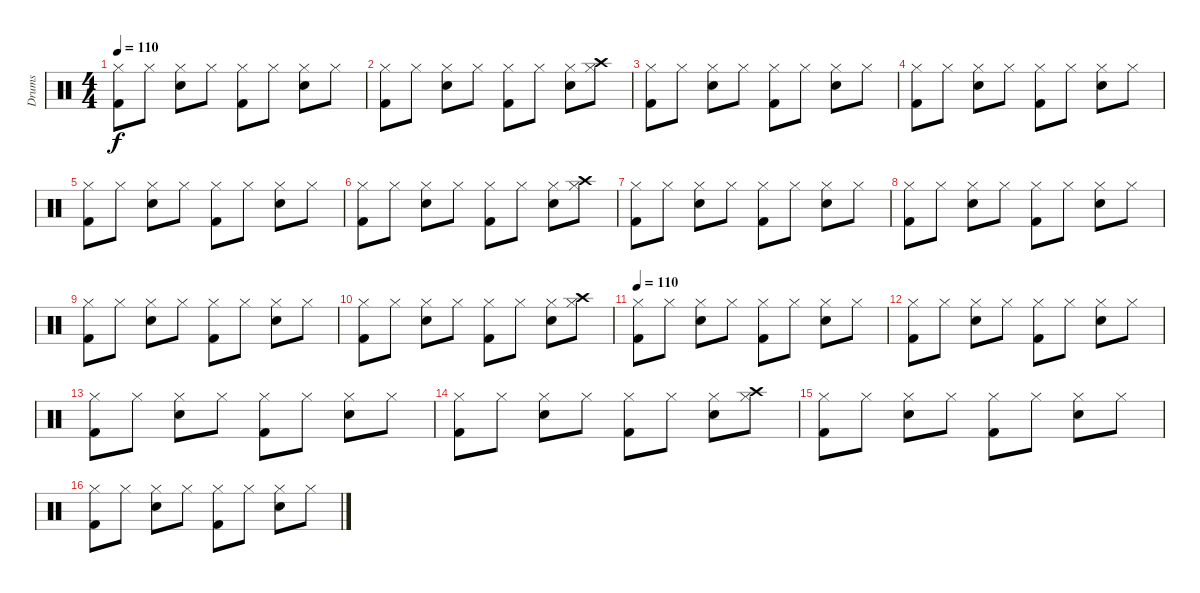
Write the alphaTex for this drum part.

\track ("Drums" "Drums") {instrument percussion}
\staff {score}
\articulation defaults
\ts (4 4)
\tempo 110
\clef neutral
\ks c
("Hi-Hat (closed)" "Kick (hit) 2").8{dy f} "Hi-Hat (closed)".8 ("Hi-Hat (closed)" "Snare (hit) 2").8 "Hi-Hat (closed)".8 ("Hi-Hat (closed)" "Kick (hit) 2").8 "Hi-Hat (closed)".8 ("Hi-Hat (closed)" "Snare (hit) 2").8 "Hi-Hat (closed)".8 |
("Hi-Hat (closed)" "Kick (hit) 2").8 "Hi-Hat (closed)".8 ("Hi-Hat (closed)" "Snare (hit) 2").8 "Hi-Hat (closed)".8 ("Hi-Hat (closed)" "Kick (hit) 2").8 "Hi-Hat (closed)".8 ("Hi-Hat (closed)" "Snare (hit) 2").8 ("Hi-Hat (closed)" "Crash high (hit)").8 |
("Hi-Hat (closed)" "Kick (hit) 2").8 "Hi-Hat (closed)".8 ("Hi-Hat (closed)" "Snare (hit) 2").8 "Hi-Hat (closed)".8 ("Hi-Hat (closed)" "Kick (hit) 2").8 "Hi-Hat (closed)".8 ("Hi-Hat (closed)" "Snare (hit) 2").8 "Hi-Hat (closed)".8 |
("Hi-Hat (closed)" "Kick (hit) 2").8 "Hi-Hat (closed)".8 ("Hi-Hat (closed)" "Snare (hit) 2").8 "Hi-Hat (closed)".8 ("Hi-Hat (closed)" "Kick (hit) 2").8 "Hi-Hat (closed)".8 ("Hi-Hat (closed)" "Snare (hit) 2").8 "Hi-Hat (closed)".8 |
("Hi-Hat (closed)" "Kick (hit) 2").8 "Hi-Hat (closed)".8 ("Hi-Hat (closed)" "Snare (hit) 2").8 "Hi-Hat (closed)".8 ("Hi-Hat (closed)" "Kick (hit) 2").8 "Hi-Hat (closed)".8 ("Hi-Hat (closed)" "Snare (hit) 2").8 "Hi-Hat (closed)".8 |
("Hi-Hat (closed)" "Kick (hit) 2").8 "Hi-Hat (closed)".8 ("Hi-Hat (closed)" "Snare (hit) 2").8 "Hi-Hat (closed)".8 ("Hi-Hat (closed)" "Kick (hit) 2").8 "Hi-Hat (closed)".8 ("Hi-Hat (closed)" "Snare (hit) 2").8 ("Hi-Hat (closed)" "Crash high (hit)").8 |
("Hi-Hat (closed)" "Kick (hit) 2").8 "Hi-Hat (closed)".8 ("Hi-Hat (closed)" "Snare (hit) 2").8 "Hi-Hat (closed)".8 ("Hi-Hat (closed)" "Kick (hit) 2").8 "Hi-Hat (closed)".8 ("Hi-Hat (closed)" "Snare (hit) 2").8 "Hi-Hat (closed)".8 |
("Hi-Hat (closed)" "Kick (hit) 2").8 "Hi-Hat (closed)".8 ("Hi-Hat (closed)" "Snare (hit) 2").8 "Hi-Hat (closed)".8 ("Hi-Hat (closed)" "Kick (hit) 2").8 "Hi-Hat (closed)".8 ("Hi-Hat (closed)" "Snare (hit) 2").8 "Hi-Hat (closed)".8 |
("Hi-Hat (closed)" "Kick (hit) 2").8 "Hi-Hat (closed)".8 ("Hi-Hat (closed)" "Snare (hit) 2").8 "Hi-Hat (closed)".8 ("Hi-Hat (closed)" "Kick (hit) 2").8 "Hi-Hat (closed)".8 ("Hi-Hat (closed)" "Snare (hit) 2").8 "Hi-Hat (closed)".8 |
("Hi-Hat (closed)" "Kick (hit) 2").8 "Hi-Hat (closed)".8 ("Hi-Hat (closed)" "Snare (hit) 2").8 "Hi-Hat (closed)".8 ("Hi-Hat (closed)" "Kick (hit) 2").8 "Hi-Hat (closed)".8 ("Hi-Hat (closed)" "Snare (hit) 2").8 ("Hi-Hat (closed)" "Crash high (hit)").8 |
\tempo 110
("Hi-Hat (closed)" "Kick (hit) 2").8 "Hi-Hat (closed)".8 ("Hi-Hat (closed)" "Snare (hit) 2").8 "Hi-Hat (closed)".8 ("Hi-Hat (closed)" "Kick (hit) 2").8 "Hi-Hat (closed)".8 ("Hi-Hat (closed)" "Snare (hit) 2").8 "Hi-Hat (closed)".8 |
("Hi-Hat (closed)" "Kick (hit) 2").8 "Hi-Hat (closed)".8 ("Hi-Hat (closed)" "Snare (hit) 2").8 "Hi-Hat (closed)".8 ("Hi-Hat (closed)" "Kick (hit) 2").8 "Hi-Hat (closed)".8 ("Hi-Hat (closed)" "Snare (hit) 2").8 "Hi-Hat (closed)".8 |
("Hi-Hat (closed)" "Kick (hit) 2").8 "Hi-Hat (closed)".8 ("Hi-Hat (closed)" "Snare (hit) 2").8 "Hi-Hat (closed)".8 ("Hi-Hat (closed)" "Kick (hit) 2").8 "Hi-Hat (closed)".8 ("Hi-Hat (closed)" "Snare (hit) 2").8 "Hi-Hat (closed)".8 |
("Hi-Hat (closed)" "Kick (hit) 2").8 "Hi-Hat (closed)".8 ("Hi-Hat (closed)" "Snare (hit) 2").8 "Hi-Hat (closed)".8 ("Hi-Hat (closed)" "Kick (hit) 2").8 "Hi-Hat (closed)".8 ("Hi-Hat (closed)" "Snare (hit) 2").8 ("Hi-Hat (closed)" "Crash high (hit)").8 |
("Hi-Hat (closed)" "Kick (hit) 2").8 "Hi-Hat (closed)".8 ("Hi-Hat (closed)" "Snare (hit) 2").8 "Hi-Hat (closed)".8 ("Hi-Hat (closed)" "Kick (hit) 2").8 "Hi-Hat (closed)".8 ("Hi-Hat (closed)" "Snare (hit) 2").8 "Hi-Hat (closed)".8 |
("Hi-Hat (closed)" "Kick (hit) 2").8 "Hi-Hat (closed)".8 ("Hi-Hat (closed)" "Snare (hit) 2").8 "Hi-Hat (closed)".8 ("Hi-Hat (closed)" "Kick (hit) 2").8 "Hi-Hat (closed)".8 ("Hi-Hat (closed)" "Snare (hit) 2").8 "Hi-Hat (closed)".8
